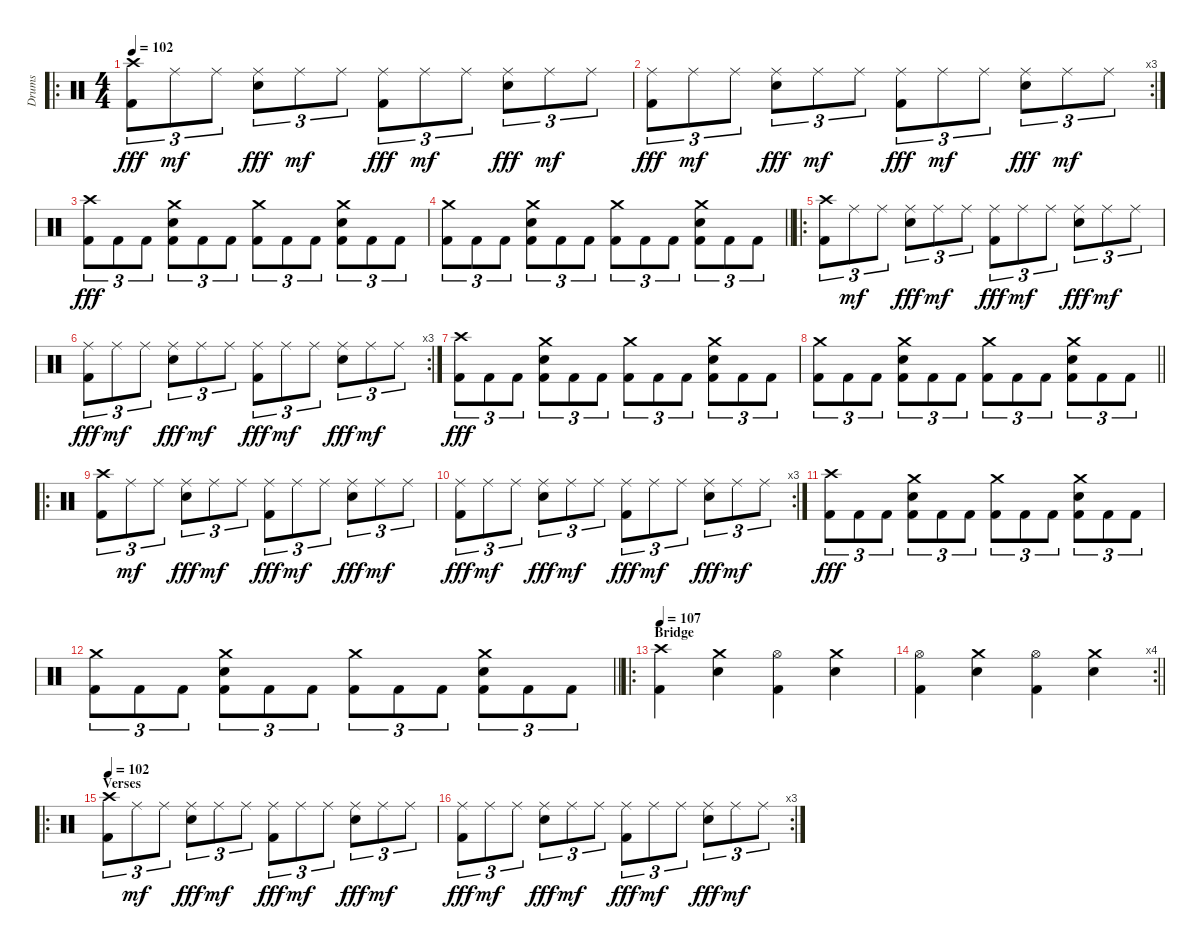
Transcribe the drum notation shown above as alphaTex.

\track ("Drums" "Drums") {instrument percussion}
\staff {score}
\articulation defaults
\ro
\ts (4 4)
\tempo 102
\clef neutral
\ks c
("Crash high (hit)" "Kick (hit) 2").8{tu (3 2) dy fff} "Ride (middle)".8{tu (3 2) dy mf} "Ride (middle)".8{tu (3 2)} ("Ride (middle)" "Electric Snare (hit)").8{tu (3 2) dy fff} "Ride (middle)".8{tu (3 2) dy mf} "Ride (middle)".8{tu (3 2)} ("Ride (middle)" "Kick (hit) 2").8{tu (3 2) dy fff} "Ride (middle)".8{tu (3 2) dy mf} "Ride (middle)".8{tu (3 2)} ("Ride (middle)" "Electric Snare (hit)").8{tu (3 2) dy fff} "Ride (middle)".8{tu (3 2) dy mf} "Ride (middle)".8{tu (3 2)} |
\rc 3
("Ride (middle)" "Kick (hit) 2").8{tu (3 2) dy fff} "Ride (middle)".8{tu (3 2) dy mf} "Ride (middle)".8{tu (3 2)} ("Ride (middle)" "Electric Snare (hit)").8{tu (3 2) dy fff} "Ride (middle)".8{tu (3 2) dy mf} "Ride (middle)".8{tu (3 2)} ("Ride (middle)" "Kick (hit) 2").8{tu (3 2) dy fff} "Ride (middle)".8{tu (3 2) dy mf} "Ride (middle)".8{tu (3 2)} ("Ride (middle)" "Electric Snare (hit)").8{tu (3 2) dy fff} "Ride (middle)".8{tu (3 2) dy mf} "Ride (middle)".8{tu (3 2)} |
("Crash high (hit)" "Kick (hit) 2").8{tu (3 2) dy fff} "Kick (hit) 2".8{tu (3 2)} "Kick (hit) 2".8{tu (3 2)} ("Crash medium (hit)" "Electric Snare (hit)" "Kick (hit) 2").8{tu (3 2)} "Kick (hit) 2".8{tu (3 2)} "Kick (hit) 2".8{tu (3 2)} ("Crash medium (hit)" "Kick (hit) 2").8{tu (3 2)} "Kick (hit) 2".8{tu (3 2)} "Kick (hit) 2".8{tu (3 2)} ("Crash medium (hit)" "Electric Snare (hit)" "Kick (hit) 2").8{tu (3 2)} "Kick (hit) 2".8{tu (3 2)} "Kick (hit) 2".8{tu (3 2)} |
\barLineRight lightlight
("Crash medium (hit)" "Kick (hit) 2").8{tu (3 2)} "Kick (hit) 2".8{tu (3 2)} "Kick (hit) 2".8{tu (3 2)} ("Crash medium (hit)" "Electric Snare (hit)" "Kick (hit) 2").8{tu (3 2)} "Kick (hit) 2".8{tu (3 2)} "Kick (hit) 2".8{tu (3 2)} ("Crash medium (hit)" "Kick (hit) 2").8{tu (3 2)} "Kick (hit) 2".8{tu (3 2)} "Kick (hit) 2".8{tu (3 2)} ("Crash medium (hit)" "Electric Snare (hit)" "Kick (hit) 2").8{tu (3 2)} "Kick (hit) 2".8{tu (3 2)} "Kick (hit) 2".8{tu (3 2)} |
\ro
("Crash high (hit)" "Kick (hit) 2").8{tu (3 2)} "Ride (middle)".8{tu (3 2) dy mf} "Ride (middle)".8{tu (3 2)} ("Ride (middle)" "Electric Snare (hit)").8{tu (3 2) dy fff} "Ride (middle)".8{tu (3 2) dy mf} "Ride (middle)".8{tu (3 2)} ("Ride (middle)" "Kick (hit) 2").8{tu (3 2) dy fff} "Ride (middle)".8{tu (3 2) dy mf} "Ride (middle)".8{tu (3 2)} ("Ride (middle)" "Electric Snare (hit)").8{tu (3 2) dy fff} "Ride (middle)".8{tu (3 2) dy mf} "Ride (middle)".8{tu (3 2)} |
\rc 3
("Ride (middle)" "Kick (hit) 2").8{tu (3 2) dy fff} "Ride (middle)".8{tu (3 2) dy mf} "Ride (middle)".8{tu (3 2)} ("Ride (middle)" "Electric Snare (hit)").8{tu (3 2) dy fff} "Ride (middle)".8{tu (3 2) dy mf} "Ride (middle)".8{tu (3 2)} ("Ride (middle)" "Kick (hit) 2").8{tu (3 2) dy fff} "Ride (middle)".8{tu (3 2) dy mf} "Ride (middle)".8{tu (3 2)} ("Ride (middle)" "Electric Snare (hit)").8{tu (3 2) dy fff} "Ride (middle)".8{tu (3 2) dy mf} "Ride (middle)".8{tu (3 2)} |
("Crash high (hit)" "Kick (hit) 2").8{tu (3 2) dy fff} "Kick (hit) 2".8{tu (3 2)} "Kick (hit) 2".8{tu (3 2)} ("Crash medium (hit)" "Electric Snare (hit)" "Kick (hit) 2").8{tu (3 2)} "Kick (hit) 2".8{tu (3 2)} "Kick (hit) 2".8{tu (3 2)} ("Crash medium (hit)" "Kick (hit) 2").8{tu (3 2)} "Kick (hit) 2".8{tu (3 2)} "Kick (hit) 2".8{tu (3 2)} ("Crash medium (hit)" "Electric Snare (hit)" "Kick (hit) 2").8{tu (3 2)} "Kick (hit) 2".8{tu (3 2)} "Kick (hit) 2".8{tu (3 2)} |
\barLineRight lightlight
("Crash medium (hit)" "Kick (hit) 2").8{tu (3 2)} "Kick (hit) 2".8{tu (3 2)} "Kick (hit) 2".8{tu (3 2)} ("Crash medium (hit)" "Electric Snare (hit)" "Kick (hit) 2").8{tu (3 2)} "Kick (hit) 2".8{tu (3 2)} "Kick (hit) 2".8{tu (3 2)} ("Crash medium (hit)" "Kick (hit) 2").8{tu (3 2)} "Kick (hit) 2".8{tu (3 2)} "Kick (hit) 2".8{tu (3 2)} ("Crash medium (hit)" "Electric Snare (hit)" "Kick (hit) 2").8{tu (3 2)} "Kick (hit) 2".8{tu (3 2)} "Kick (hit) 2".8{tu (3 2)} |
\ro
("Crash high (hit)" "Kick (hit) 2").8{tu (3 2)} "Ride (middle)".8{tu (3 2) dy mf} "Ride (middle)".8{tu (3 2)} ("Ride (middle)" "Electric Snare (hit)").8{tu (3 2) dy fff} "Ride (middle)".8{tu (3 2) dy mf} "Ride (middle)".8{tu (3 2)} ("Ride (middle)" "Kick (hit) 2").8{tu (3 2) dy fff} "Ride (middle)".8{tu (3 2) dy mf} "Ride (middle)".8{tu (3 2)} ("Ride (middle)" "Electric Snare (hit)").8{tu (3 2) dy fff} "Ride (middle)".8{tu (3 2) dy mf} "Ride (middle)".8{tu (3 2)} |
\rc 3
("Ride (middle)" "Kick (hit) 2").8{tu (3 2) dy fff} "Ride (middle)".8{tu (3 2) dy mf} "Ride (middle)".8{tu (3 2)} ("Ride (middle)" "Electric Snare (hit)").8{tu (3 2) dy fff} "Ride (middle)".8{tu (3 2) dy mf} "Ride (middle)".8{tu (3 2)} ("Ride (middle)" "Kick (hit) 2").8{tu (3 2) dy fff} "Ride (middle)".8{tu (3 2) dy mf} "Ride (middle)".8{tu (3 2)} ("Ride (middle)" "Electric Snare (hit)").8{tu (3 2) dy fff} "Ride (middle)".8{tu (3 2) dy mf} "Ride (middle)".8{tu (3 2)} |
("Crash high (hit)" "Kick (hit) 2").8{tu (3 2) dy fff} "Kick (hit) 2".8{tu (3 2)} "Kick (hit) 2".8{tu (3 2)} ("Crash medium (hit)" "Electric Snare (hit)" "Kick (hit) 2").8{tu (3 2)} "Kick (hit) 2".8{tu (3 2)} "Kick (hit) 2".8{tu (3 2)} ("Crash medium (hit)" "Kick (hit) 2").8{tu (3 2)} "Kick (hit) 2".8{tu (3 2)} "Kick (hit) 2".8{tu (3 2)} ("Crash medium (hit)" "Electric Snare (hit)" "Kick (hit) 2").8{tu (3 2)} "Kick (hit) 2".8{tu (3 2)} "Kick (hit) 2".8{tu (3 2)} |
\barLineRight lightlight
("Crash medium (hit)" "Kick (hit) 2").8{tu (3 2)} "Kick (hit) 2".8{tu (3 2)} "Kick (hit) 2".8{tu (3 2)} ("Crash medium (hit)" "Electric Snare (hit)" "Kick (hit) 2").8{tu (3 2)} "Kick (hit) 2".8{tu (3 2)} "Kick (hit) 2".8{tu (3 2)} ("Crash medium (hit)" "Kick (hit) 2").8{tu (3 2)} "Kick (hit) 2".8{tu (3 2)} "Kick (hit) 2".8{tu (3 2)} ("Crash medium (hit)" "Electric Snare (hit)" "Kick (hit) 2").8{tu (3 2)} "Kick (hit) 2".8{tu (3 2)} "Kick (hit) 2".8{tu (3 2)} |
\ro
\section ("" "Bridge")
\tempo 107
("Crash high (hit)" "Kick (hit) 2").4 ("Crash medium (hit)" "Electric Snare (hit)").4 ("Hi-Hat (open)" "Kick (hit) 2").4 ("Crash medium (hit)" "Electric Snare (hit)").4 |
\rc 4
\barLineRight lightlight
("Hi-Hat (open)" "Kick (hit) 2").4 ("Crash medium (hit)" "Electric Snare (hit)").4 ("Hi-Hat (open)" "Kick (hit) 2").4 ("Crash medium (hit)" "Electric Snare (hit)").4 |
\ro
\section ("" "Verses")
\tempo 102
("Crash high (hit)" "Kick (hit) 2").8{tu (3 2)} "Ride (middle)".8{tu (3 2) dy mf} "Ride (middle)".8{tu (3 2)} ("Ride (middle)" "Electric Snare (hit)").8{tu (3 2) dy fff} "Ride (middle)".8{tu (3 2) dy mf} "Ride (middle)".8{tu (3 2)} ("Ride (middle)" "Kick (hit) 2").8{tu (3 2) dy fff} "Ride (middle)".8{tu (3 2) dy mf} "Ride (middle)".8{tu (3 2)} ("Ride (middle)" "Electric Snare (hit)").8{tu (3 2) dy fff} "Ride (middle)".8{tu (3 2) dy mf} "Ride (middle)".8{tu (3 2)} |
\rc 3
("Ride (middle)" "Kick (hit) 2").8{tu (3 2) dy fff} "Ride (middle)".8{tu (3 2) dy mf} "Ride (middle)".8{tu (3 2)} ("Ride (middle)" "Electric Snare (hit)").8{tu (3 2) dy fff} "Ride (middle)".8{tu (3 2) dy mf} "Ride (middle)".8{tu (3 2)} ("Ride (middle)" "Kick (hit) 2").8{tu (3 2) dy fff} "Ride (middle)".8{tu (3 2) dy mf} "Ride (middle)".8{tu (3 2)} ("Ride (middle)" "Electric Snare (hit)").8{tu (3 2) dy fff} "Ride (middle)".8{tu (3 2) dy mf} "Ride (middle)".8{tu (3 2)}
